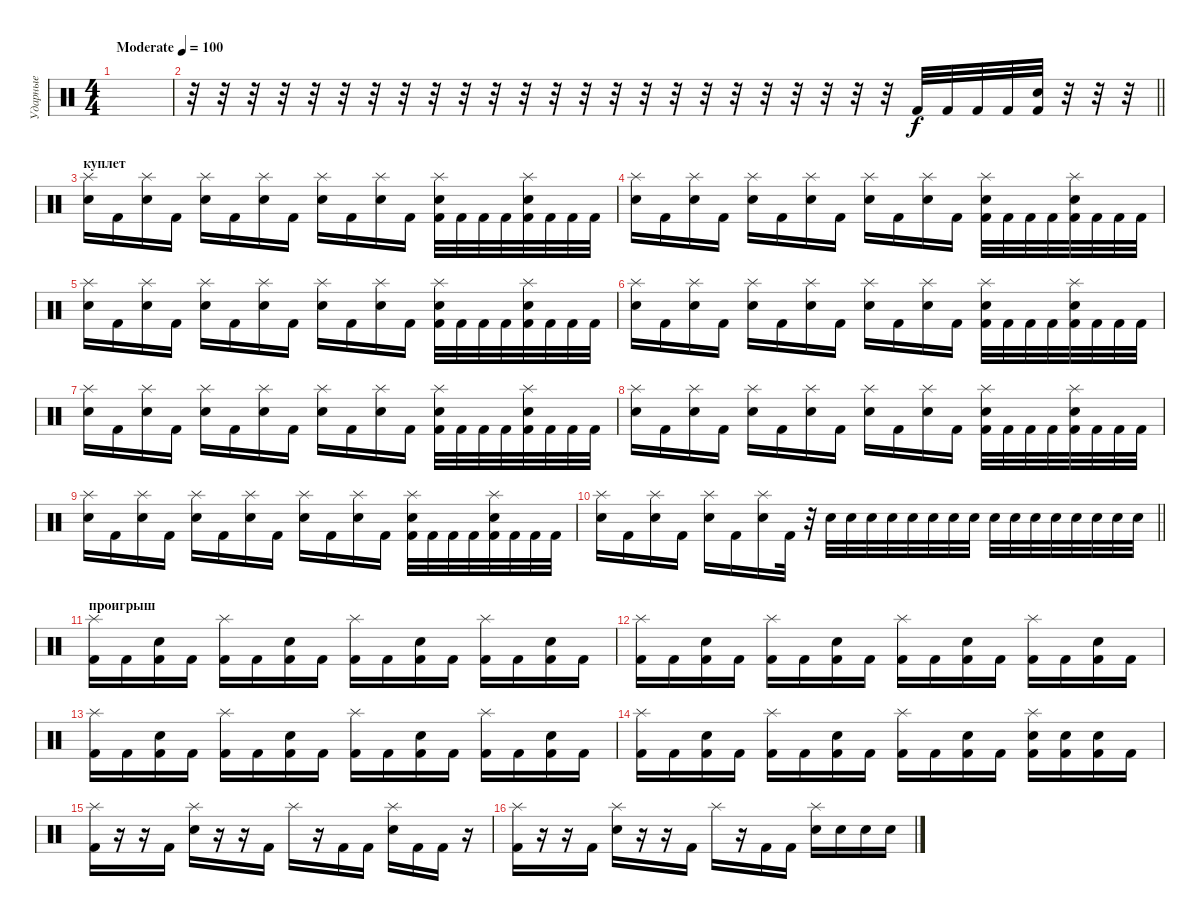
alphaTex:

\track ("Ударные" "Ударные") {instrument percussion}
\staff {score}
\articulation defaults
\ts (4 4)
\tempo (100 "Moderate")
\clef neutral
\ks c
|
\barLineRight lightlight
r.32 r.32 r.32 r.32 r.32 r.32 r.32 r.32 r.32 r.32 r.32 r.32 r.32 r.32 r.32 r.32 r.32 r.32 r.32 r.32 r.32 r.32 r.32 r.32 "Kick (hit) 2".32 "Kick (hit) 2".32 "Kick (hit) 2".32 "Kick (hit) 2".32 ("Electric Snare (hit)" "Kick (hit) 2").32 r.32 r.32 r.32 |
\section ("" "куплет")
("Splash (hit)" "Electric Snare (hit)").16 "Kick (hit) 2".16 ("Splash (hit)" "Electric Snare (hit)").16 "Kick (hit) 2".16 ("Splash (hit)" "Electric Snare (hit)").16 "Kick (hit) 2".16 ("Splash (hit)" "Electric Snare (hit)").16 "Kick (hit) 2".16 ("Splash (hit)" "Electric Snare (hit)").16 "Kick (hit) 2".16 ("Splash (hit)" "Electric Snare (hit)").16 "Kick (hit) 2".16 ("Splash (hit)" "Electric Snare (hit)" "Kick (hit) 2").32 "Kick (hit) 2".32 "Kick (hit) 2".32 "Kick (hit) 2".32 ("Splash (hit)" "Electric Snare (hit)" "Kick (hit) 2").32 "Kick (hit) 2".32 "Kick (hit) 2".32 "Kick (hit) 2".32 |
("Splash (hit)" "Electric Snare (hit)").16 "Kick (hit) 2".16 ("Splash (hit)" "Electric Snare (hit)").16 "Kick (hit) 2".16 ("Splash (hit)" "Electric Snare (hit)").16 "Kick (hit) 2".16 ("Splash (hit)" "Electric Snare (hit)").16 "Kick (hit) 2".16 ("Splash (hit)" "Electric Snare (hit)").16 "Kick (hit) 2".16 ("Splash (hit)" "Electric Snare (hit)").16 "Kick (hit) 2".16 ("Splash (hit)" "Electric Snare (hit)" "Kick (hit) 2").32 "Kick (hit) 2".32 "Kick (hit) 2".32 "Kick (hit) 2".32 ("Splash (hit)" "Electric Snare (hit)" "Kick (hit) 2").32 "Kick (hit) 2".32 "Kick (hit) 2".32 "Kick (hit) 2".32 |
("Splash (hit)" "Electric Snare (hit)").16 "Kick (hit) 2".16 ("Splash (hit)" "Electric Snare (hit)").16 "Kick (hit) 2".16 ("Splash (hit)" "Electric Snare (hit)").16 "Kick (hit) 2".16 ("Splash (hit)" "Electric Snare (hit)").16 "Kick (hit) 2".16 ("Splash (hit)" "Electric Snare (hit)").16 "Kick (hit) 2".16 ("Splash (hit)" "Electric Snare (hit)").16 "Kick (hit) 2".16 ("Splash (hit)" "Electric Snare (hit)" "Kick (hit) 2").32 "Kick (hit) 2".32 "Kick (hit) 2".32 "Kick (hit) 2".32 ("Splash (hit)" "Electric Snare (hit)" "Kick (hit) 2").32 "Kick (hit) 2".32 "Kick (hit) 2".32 "Kick (hit) 2".32 |
("Splash (hit)" "Electric Snare (hit)").16 "Kick (hit) 2".16 ("Splash (hit)" "Electric Snare (hit)").16 "Kick (hit) 2".16 ("Splash (hit)" "Electric Snare (hit)").16 "Kick (hit) 2".16 ("Splash (hit)" "Electric Snare (hit)").16 "Kick (hit) 2".16 ("Splash (hit)" "Electric Snare (hit)").16 "Kick (hit) 2".16 ("Splash (hit)" "Electric Snare (hit)").16 "Kick (hit) 2".16 ("Splash (hit)" "Electric Snare (hit)" "Kick (hit) 2").32 "Kick (hit) 2".32 "Kick (hit) 2".32 "Kick (hit) 2".32 ("Splash (hit)" "Electric Snare (hit)" "Kick (hit) 2").32 "Kick (hit) 2".32 "Kick (hit) 2".32 "Kick (hit) 2".32 |
("Splash (hit)" "Electric Snare (hit)").16 "Kick (hit) 2".16 ("Splash (hit)" "Electric Snare (hit)").16 "Kick (hit) 2".16 ("Splash (hit)" "Electric Snare (hit)").16 "Kick (hit) 2".16 ("Splash (hit)" "Electric Snare (hit)").16 "Kick (hit) 2".16 ("Splash (hit)" "Electric Snare (hit)").16 "Kick (hit) 2".16 ("Splash (hit)" "Electric Snare (hit)").16 "Kick (hit) 2".16 ("Splash (hit)" "Electric Snare (hit)" "Kick (hit) 2").32 "Kick (hit) 2".32 "Kick (hit) 2".32 "Kick (hit) 2".32 ("Splash (hit)" "Electric Snare (hit)" "Kick (hit) 2").32 "Kick (hit) 2".32 "Kick (hit) 2".32 "Kick (hit) 2".32 |
("Splash (hit)" "Electric Snare (hit)").16 "Kick (hit) 2".16 ("Splash (hit)" "Electric Snare (hit)").16 "Kick (hit) 2".16 ("Splash (hit)" "Electric Snare (hit)").16 "Kick (hit) 2".16 ("Splash (hit)" "Electric Snare (hit)").16 "Kick (hit) 2".16 ("Splash (hit)" "Electric Snare (hit)").16 "Kick (hit) 2".16 ("Splash (hit)" "Electric Snare (hit)").16 "Kick (hit) 2".16 ("Splash (hit)" "Electric Snare (hit)" "Kick (hit) 2").32 "Kick (hit) 2".32 "Kick (hit) 2".32 "Kick (hit) 2".32 ("Splash (hit)" "Electric Snare (hit)" "Kick (hit) 2").32 "Kick (hit) 2".32 "Kick (hit) 2".32 "Kick (hit) 2".32 |
("Splash (hit)" "Electric Snare (hit)").16 "Kick (hit) 2".16 ("Splash (hit)" "Electric Snare (hit)").16 "Kick (hit) 2".16 ("Splash (hit)" "Electric Snare (hit)").16 "Kick (hit) 2".16 ("Splash (hit)" "Electric Snare (hit)").16 "Kick (hit) 2".16 ("Splash (hit)" "Electric Snare (hit)").16 "Kick (hit) 2".16 ("Splash (hit)" "Electric Snare (hit)").16 "Kick (hit) 2".16 ("Splash (hit)" "Electric Snare (hit)" "Kick (hit) 2").32 "Kick (hit) 2".32 "Kick (hit) 2".32 "Kick (hit) 2".32 ("Splash (hit)" "Electric Snare (hit)" "Kick (hit) 2").32 "Kick (hit) 2".32 "Kick (hit) 2".32 "Kick (hit) 2".32 |
\barLineRight lightlight
("Splash (hit)" "Electric Snare (hit)").16 "Kick (hit) 2".16 ("Splash (hit)" "Electric Snare (hit)").16 "Kick (hit) 2".16 ("Splash (hit)" "Electric Snare (hit)").16 "Kick (hit) 2".16 ("Splash (hit)" "Electric Snare (hit)").16 "Kick (hit) 2".32 r.32 "Electric Snare (hit)".32 "Electric Snare (hit)".32 "Electric Snare (hit)".32 "Electric Snare (hit)".32 "Electric Snare (hit)".32 "Electric Snare (hit)".32 "Electric Snare (hit)".32 "Electric Snare (hit)".32 "Electric Snare (hit)".32 "Electric Snare (hit)".32 "Electric Snare (hit)".32 "Electric Snare (hit)".32 "Electric Snare (hit)".32 "Electric Snare (hit)".32 "Electric Snare (hit)".32 "Electric Snare (hit)".32 |
\section ("" "проигрыш")
("Splash (hit)" "Kick (hit) 2").16 "Kick (hit) 2".16 ("Electric Snare (hit)" "Kick (hit) 2").16 "Kick (hit) 2".16 ("Splash (hit)" "Kick (hit) 2").16 "Kick (hit) 2".16 ("Electric Snare (hit)" "Kick (hit) 2").16 "Kick (hit) 2".16 ("Splash (hit)" "Kick (hit) 2").16 "Kick (hit) 2".16 ("Electric Snare (hit)" "Kick (hit) 2").16 "Kick (hit) 2".16 ("Splash (hit)" "Kick (hit) 2").16 "Kick (hit) 2".16 ("Electric Snare (hit)" "Kick (hit) 2").16 "Kick (hit) 2".16 |
("Splash (hit)" "Kick (hit) 2").16 "Kick (hit) 2".16 ("Electric Snare (hit)" "Kick (hit) 2").16 "Kick (hit) 2".16 ("Splash (hit)" "Kick (hit) 2").16 "Kick (hit) 2".16 ("Electric Snare (hit)" "Kick (hit) 2").16 "Kick (hit) 2".16 ("Splash (hit)" "Kick (hit) 2").16 "Kick (hit) 2".16 ("Electric Snare (hit)" "Kick (hit) 2").16 "Kick (hit) 2".16 ("Splash (hit)" "Kick (hit) 2").16 "Kick (hit) 2".16 ("Electric Snare (hit)" "Kick (hit) 2").16 "Kick (hit) 2".16 |
("Splash (hit)" "Kick (hit) 2").16 "Kick (hit) 2".16 ("Electric Snare (hit)" "Kick (hit) 2").16 "Kick (hit) 2".16 ("Splash (hit)" "Kick (hit) 2").16 "Kick (hit) 2".16 ("Electric Snare (hit)" "Kick (hit) 2").16 "Kick (hit) 2".16 ("Splash (hit)" "Kick (hit) 2").16 "Kick (hit) 2".16 ("Electric Snare (hit)" "Kick (hit) 2").16 "Kick (hit) 2".16 ("Splash (hit)" "Kick (hit) 2").16 "Kick (hit) 2".16 ("Electric Snare (hit)" "Kick (hit) 2").16 "Kick (hit) 2".16 |
("Splash (hit)" "Kick (hit) 2").16 "Kick (hit) 2".16 ("Electric Snare (hit)" "Kick (hit) 2").16 "Kick (hit) 2".16 ("Splash (hit)" "Kick (hit) 2").16 "Kick (hit) 2".16 ("Electric Snare (hit)" "Kick (hit) 2").16 "Kick (hit) 2".16 ("Splash (hit)" "Kick (hit) 2").16 "Kick (hit) 2".16 ("Electric Snare (hit)" "Kick (hit) 2").16 "Kick (hit) 2".16 ("Splash (hit)" "Electric Snare (hit)" "Kick (hit) 2").16 ("Electric Snare (hit)" "Kick (hit) 2").16 ("Electric Snare (hit)" "Kick (hit) 2").16 "Kick (hit) 2".16 |
("Splash (hit)" "Kick (hit) 2").16 r.16 r.16 "Kick (hit) 2".16 ("Splash (hit)" "Electric Snare (hit)").16 r.16 r.16 "Kick (hit) 2".16 "Splash (hit)".16 r.16 "Kick (hit) 2".16 "Kick (hit) 2".16 ("Splash (hit)" "Electric Snare (hit)").16 "Kick (hit) 2".16 "Kick (hit) 2".16 r.16 |
("Splash (hit)" "Kick (hit) 2").16 r.16 r.16 "Kick (hit) 2".16 ("Splash (hit)" "Electric Snare (hit)").16 r.16 r.16 "Kick (hit) 2".16 "Splash (hit)".16 r.16 "Kick (hit) 2".16 "Kick (hit) 2".16 ("Splash (hit)" "Electric Snare (hit)").16 "Electric Snare (hit)".16 "Electric Snare (hit)".16 "Electric Snare (hit)".16
